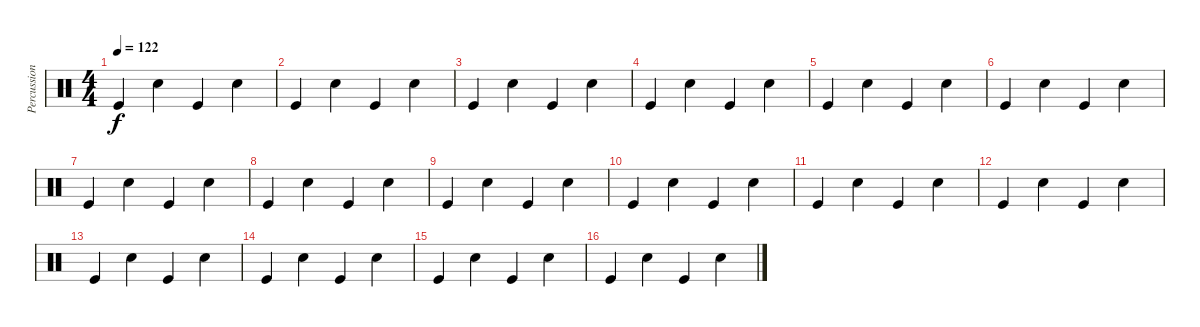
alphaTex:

\track ("Percussion" "Percussion") {instrument percussion}
\staff {score}
\articulation defaults
\ts (4 4)
\tempo 122
\clef neutral
\ks c "Kick (hit)".4{dy f} "Snare (hit) 2".4 "Kick (hit)".4 "Snare (hit) 2".4
|
"Kick (hit)".4 "Snare (hit) 2".4 "Kick (hit)".4 "Snare (hit) 2".4 |
"Kick (hit)".4 "Snare (hit) 2".4 "Kick (hit)".4 "Snare (hit) 2".4 |
"Kick (hit)".4 "Snare (hit) 2".4 "Kick (hit)".4 "Snare (hit) 2".4 |
"Kick (hit)".4 "Snare (hit) 2".4 "Kick (hit)".4 "Snare (hit) 2".4 |
"Kick (hit)".4 "Snare (hit) 2".4 "Kick (hit)".4 "Snare (hit) 2".4 |
"Kick (hit)".4 "Snare (hit) 2".4 "Kick (hit)".4 "Snare (hit) 2".4 |
"Kick (hit)".4 "Snare (hit) 2".4 "Kick (hit)".4 "Snare (hit) 2".4 |
"Kick (hit)".4 "Snare (hit) 2".4 "Kick (hit)".4 "Snare (hit) 2".4 |
"Kick (hit)".4 "Snare (hit) 2".4 "Kick (hit)".4 "Snare (hit) 2".4 |
"Kick (hit)".4 "Snare (hit) 2".4 "Kick (hit)".4 "Snare (hit) 2".4 |
"Kick (hit)".4 "Snare (hit) 2".4 "Kick (hit)".4 "Snare (hit) 2".4 |
"Kick (hit)".4 "Snare (hit) 2".4 "Kick (hit)".4 "Snare (hit) 2".4 |
"Kick (hit)".4 "Snare (hit) 2".4 "Kick (hit)".4 "Snare (hit) 2".4 |
"Kick (hit)".4 "Snare (hit) 2".4 "Kick (hit)".4 "Snare (hit) 2".4 |
"Kick (hit)".4 "Snare (hit) 2".4 "Kick (hit)".4 "Snare (hit) 2".4
